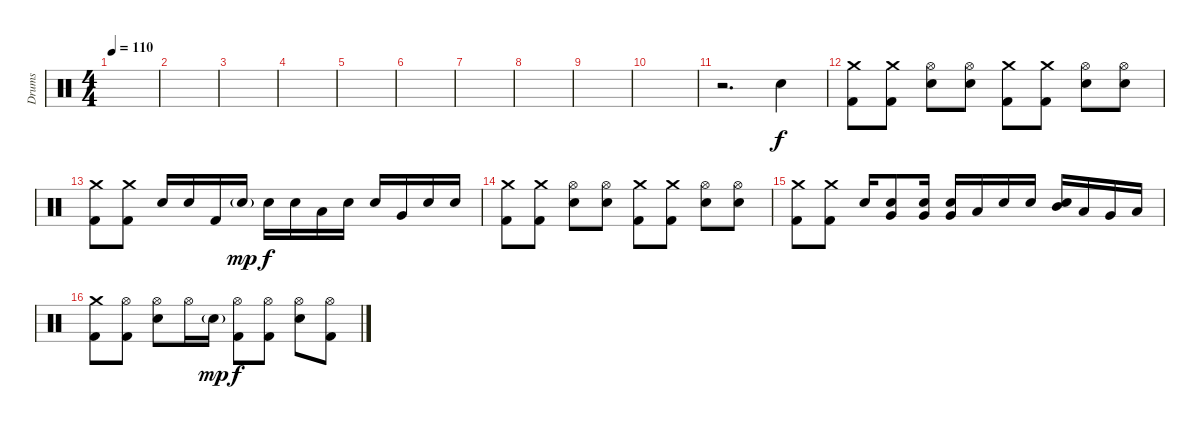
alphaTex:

\track ("Drums" "Drums") {instrument percussion}
\staff {score}
\articulation defaults
\ts (4 4)
\tempo 110
\clef neutral
\ks c
|
|
|
|
|
|
|
|
|
|
r.2{d} "Electric Snare (hit)".4 |
("Crash medium (hit)" "Kick (hit) 2").8 ("Crash medium (hit)" "Kick (hit) 2").8 ("Hi-Hat (open)" "Electric Snare (hit)").8 ("Hi-Hat (open)" "Electric Snare (hit)").8 ("Crash medium (hit)" "Kick (hit) 2").8 ("Crash medium (hit)" "Kick (hit) 2").8 ("Hi-Hat (open)" "Electric Snare (hit)").8 ("Hi-Hat (open)" "Electric Snare (hit)").8 |
("Crash medium (hit)" "Kick (hit) 2").8 ("Crash medium (hit)" "Kick (hit) 2").8 "Electric Snare (hit)".16 "Electric Snare (hit)".16 "Kick (hit) 2".16 "Electric Snare (hit)"{g}.16{dy mp} "Electric Snare (hit)".16{dy f} "Electric Snare (hit)".16 "Low Tom (hit)".16 "Electric Snare (hit)".16 "Electric Snare (hit)".16 "Very Low Tom (hit)".16 "Electric Snare (hit)".16 "Electric Snare (hit)".16 |
("Crash medium (hit)" "Kick (hit) 2").8 ("Crash medium (hit)" "Kick (hit) 2").8 ("Hi-Hat (open)" "Electric Snare (hit)").8 ("Hi-Hat (open)" "Electric Snare (hit)").8 ("Crash medium (hit)" "Kick (hit) 2").8 ("Crash medium (hit)" "Kick (hit) 2").8 ("Hi-Hat (open)" "Electric Snare (hit)").8 ("Hi-Hat (open)" "Electric Snare (hit)").8 |
("Crash medium (hit)" "Kick (hit) 2").8 ("Crash medium (hit)" "Kick (hit) 2").8 "Electric Snare (hit)".16 ("Very Low Tom (hit)" "Electric Snare (hit)").8 ("Very Low Tom (hit)" "Electric Snare (hit)").16 ("Very Low Tom (hit)" "Electric Snare (hit)").16 "Low Floor Tom (hit)".16 "Electric Snare (hit)".16 "Electric Snare (hit)".16 ("Mid Tom (hit)" "Electric Snare (hit)").16 "Low Tom (hit)".16 "Very Low Tom (hit)".16 "Low Floor Tom (hit)".16 |
("Crash medium (hit)" "Kick (hit) 2").8 ("Hi-Hat (open)" "Kick (hit) 2").8 ("Hi-Hat (open)" "Electric Snare (hit)").8 "Hi-Hat (open)".16 "Electric Snare (hit)"{g}.16{dy mp} ("Hi-Hat (open)" "Kick (hit) 2").8{dy f} ("Hi-Hat (open)" "Kick (hit) 2").8 ("Hi-Hat (open)" "Electric Snare (hit)").8 ("Hi-Hat (open)" "Kick (hit) 2").8
